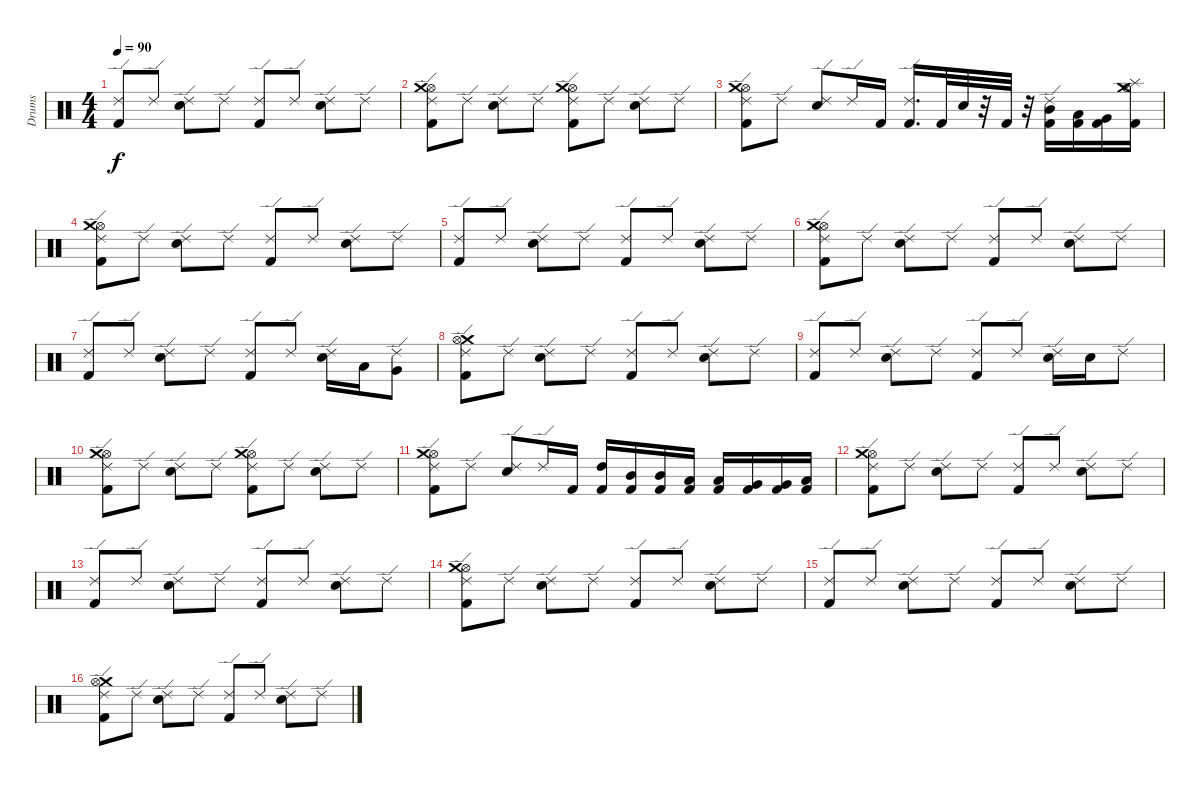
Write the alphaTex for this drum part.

\track ("Drums" "Drums") {instrument percussion}
\staff {score}
\articulation defaults
\ts (4 4)
\tempo 90
\clef neutral
\ks c
("Kick (hit) 2" "Ride (edge) 2").8{dy f} "Ride (edge) 2".8 ("Electric Snare (hit)" "Ride (edge) 2").8 "Ride (edge) 2".8 ("Kick (hit) 2" "Ride (edge) 2").8 "Ride (edge) 2".8 ("Electric Snare (hit)" "Ride (edge) 2").8 "Ride (edge) 2".8 |
("Hi-Hat (open)" "Crash medium (hit)" "Kick (hit) 2" "Ride (edge) 2").8 "Ride (edge) 2".8 ("Electric Snare (hit)" "Ride (edge) 2").8 "Ride (edge) 2".8 ("Hi-Hat (open)" "Crash medium (hit)" "Kick (hit) 2" "Ride (edge) 2").8 "Ride (edge) 2".8 ("Electric Snare (hit)" "Ride (edge) 2").8 "Ride (edge) 2".8 |
("Hi-Hat (open)" "Crash medium (hit)" "Kick (hit) 2" "Ride (edge) 2").8 "Ride (edge) 2".8 ("Electric Snare (hit)" "Ride (edge) 2").8 "Ride (edge) 2".16 "Kick (hit) 2".16 ("Ride (edge) 2" "Kick (hit) 2").16{d} "Kick (hit) 2".32 "Electric Snare (hit)".32 r.32 "Kick (hit) 2".32 r.32 ("Ride (edge) 2" "Kick (hit) 2" "Mid Tom (hit)").16 ("Kick (hit) 2" "Low Tom (hit)").16 ("Kick (hit) 2" "Very Low Tom (hit)").16 ("Splash (hit)" "Crash medium (hit)" "Hi-Hat (open)" "Kick (hit) 2").16 |
("Hi-Hat (open)" "Crash medium (hit)" "Kick (hit) 2" "Ride (edge) 2").8 "Ride (edge) 2".8 ("Electric Snare (hit)" "Ride (edge) 2").8 "Ride (edge) 2".8 ("Kick (hit) 2" "Ride (edge) 2").8 "Ride (edge) 2".8 ("Electric Snare (hit)" "Ride (edge) 2").8 "Ride (edge) 2".8 |
("Kick (hit) 2" "Ride (edge) 2").8 "Ride (edge) 2".8 ("Electric Snare (hit)" "Ride (edge) 2").8 "Ride (edge) 2".8 ("Kick (hit) 2" "Ride (edge) 2").8 "Ride (edge) 2".8 ("Electric Snare (hit)" "Ride (edge) 2").8 "Ride (edge) 2".8 |
("Hi-Hat (open)" "Crash medium (hit)" "Kick (hit) 2" "Ride (edge) 2").8 "Ride (edge) 2".8 ("Electric Snare (hit)" "Ride (edge) 2").8 "Ride (edge) 2".8 ("Kick (hit) 2" "Ride (edge) 2").8 "Ride (edge) 2".8 ("Electric Snare (hit)" "Ride (edge) 2").8 "Ride (edge) 2".8 |
("Kick (hit) 2" "Ride (edge) 2").8 "Ride (edge) 2".8 ("Electric Snare (hit)" "Ride (edge) 2").8 "Ride (edge) 2".8 ("Kick (hit) 2" "Ride (edge) 2").8 "Ride (edge) 2".8 ("Electric Snare (hit)" "Ride (edge) 2").16 "Low Tom (hit)".16 ("Very Low Tom (hit)" "Ride (edge) 2").8 |
("Crash medium (hit)" "Hi-Hat (open)" "Kick (hit) 2" "Ride (edge) 2").8 "Ride (edge) 2".8 ("Electric Snare (hit)" "Ride (edge) 2").8 "Ride (edge) 2".8 ("Kick (hit) 2" "Ride (edge) 2").8 "Ride (edge) 2".8 ("Electric Snare (hit)" "Ride (edge) 2").8 "Ride (edge) 2".8 |
("Kick (hit) 2" "Ride (edge) 2").8 "Ride (edge) 2".8 ("Electric Snare (hit)" "Ride (edge) 2").8 "Ride (edge) 2".8 ("Kick (hit) 2" "Ride (edge) 2").8 "Ride (edge) 2".8 ("Electric Snare (hit)" "Ride (edge) 2").16 "Electric Snare (hit)".16 "Ride (edge) 2".8 |
("Hi-Hat (open)" "Crash medium (hit)" "Kick (hit) 2" "Ride (edge) 2").8 "Ride (edge) 2".8 ("Electric Snare (hit)" "Ride (edge) 2").8 "Ride (edge) 2".8 ("Hi-Hat (open)" "Crash medium (hit)" "Kick (hit) 2" "Ride (edge) 2").8 "Ride (edge) 2".8 ("Electric Snare (hit)" "Ride (edge) 2").8 "Ride (edge) 2".8 |
("Hi-Hat (open)" "Crash medium (hit)" "Kick (hit) 2" "Ride (edge) 2").8 "Ride (edge) 2".8 ("Electric Snare (hit)" "Ride (edge) 2").8 "Ride (edge) 2".16 "Kick (hit) 2".16 ("High Tom (hit)" "Kick (hit) 2").16 ("Mid Tom (hit)" "Kick (hit) 2").16 ("Mid Tom (hit)" "Kick (hit) 2").16 ("Low Tom (hit)" "Kick (hit) 2").16 ("Low Tom (hit)" "Kick (hit) 2").16 ("Very Low Tom (hit)" "Kick (hit) 2").16 ("Very Low Tom (hit)" "Kick (hit) 2").16 ("Low Floor Tom (hit)" "Kick (hit) 2").16 |
("Hi-Hat (open)" "Crash medium (hit)" "Kick (hit) 2" "Ride (edge) 2").8 "Ride (edge) 2".8 ("Electric Snare (hit)" "Ride (edge) 2").8 "Ride (edge) 2".8 ("Kick (hit) 2" "Ride (edge) 2").8 "Ride (edge) 2".8 ("Electric Snare (hit)" "Ride (edge) 2").8 "Ride (edge) 2".8 |
("Kick (hit) 2" "Ride (edge) 2").8 "Ride (edge) 2".8 ("Electric Snare (hit)" "Ride (edge) 2").8 "Ride (edge) 2".8 ("Kick (hit) 2" "Ride (edge) 2").8 "Ride (edge) 2".8 ("Electric Snare (hit)" "Ride (edge) 2").8 "Ride (edge) 2".8 |
("Hi-Hat (open)" "Crash medium (hit)" "Kick (hit) 2" "Ride (edge) 2").8 "Ride (edge) 2".8 ("Electric Snare (hit)" "Ride (edge) 2").8 "Ride (edge) 2".8 ("Kick (hit) 2" "Ride (edge) 2").8 "Ride (edge) 2".8 ("Electric Snare (hit)" "Ride (edge) 2").8 "Ride (edge) 2".8 |
("Kick (hit) 2" "Ride (edge) 2").8 "Ride (edge) 2".8 ("Electric Snare (hit)" "Ride (edge) 2").8 "Ride (edge) 2".8 ("Kick (hit) 2" "Ride (edge) 2").8 "Ride (edge) 2".8 ("Electric Snare (hit)" "Ride (edge) 2").8 "Ride (edge) 2".8 |
("Crash medium (hit)" "Hi-Hat (open)" "Kick (hit) 2" "Ride (edge) 2").8 "Ride (edge) 2".8 ("Electric Snare (hit)" "Ride (edge) 2").8 "Ride (edge) 2".8 ("Kick (hit) 2" "Ride (edge) 2").8 "Ride (edge) 2".8 ("Electric Snare (hit)" "Ride (edge) 2").8 "Ride (edge) 2".8
